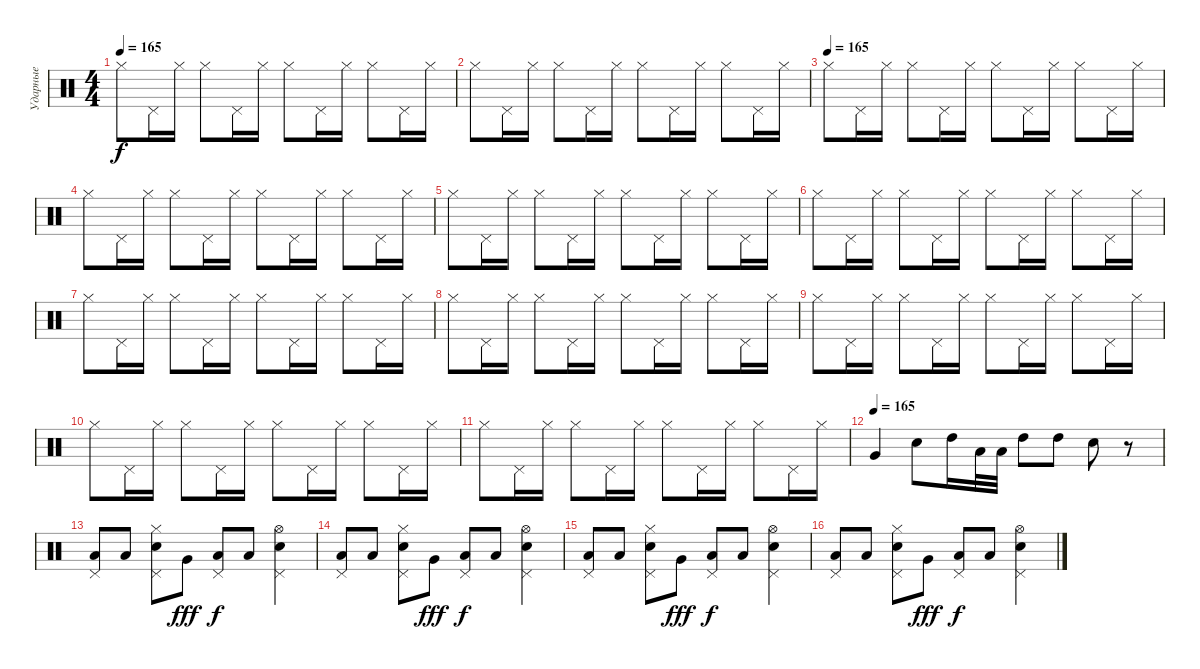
\track ("Ударные" "Ударные") {instrument percussion}
\staff {score}
\articulation defaults
\ts (4 4)
\tempo 165
\clef neutral
\ks c "Hi-Hat (closed)".8{dy f} "Pedal Hi-Hat (hit)".16 "Hi-Hat (closed)".16 "Hi-Hat (closed)".8 "Pedal Hi-Hat (hit)".16 "Hi-Hat (closed)".16 "Hi-Hat (closed)".8 "Pedal Hi-Hat (hit)".16 "Hi-Hat (closed)".16 "Hi-Hat (closed)".8 "Pedal Hi-Hat (hit)".16 "Hi-Hat (closed)".16
|
"Hi-Hat (closed)".8 "Pedal Hi-Hat (hit)".16 "Hi-Hat (closed)".16 "Hi-Hat (closed)".8 "Pedal Hi-Hat (hit)".16 "Hi-Hat (closed)".16 "Hi-Hat (closed)".8 "Pedal Hi-Hat (hit)".16 "Hi-Hat (closed)".16 "Hi-Hat (closed)".8 "Pedal Hi-Hat (hit)".16 "Hi-Hat (closed)".16 |
\tempo (165)
"Hi-Hat (closed)".8 "Pedal Hi-Hat (hit)".16 "Hi-Hat (closed)".16 "Hi-Hat (closed)".8 "Pedal Hi-Hat (hit)".16 "Hi-Hat (closed)".16 "Hi-Hat (closed)".8 "Pedal Hi-Hat (hit)".16 "Hi-Hat (closed)".16 "Hi-Hat (closed)".8 "Pedal Hi-Hat (hit)".16 "Hi-Hat (closed)".16 |
"Hi-Hat (closed)".8 "Pedal Hi-Hat (hit)".16 "Hi-Hat (closed)".16 "Hi-Hat (closed)".8 "Pedal Hi-Hat (hit)".16 "Hi-Hat (closed)".16 "Hi-Hat (closed)".8 "Pedal Hi-Hat (hit)".16 "Hi-Hat (closed)".16 "Hi-Hat (closed)".8 "Pedal Hi-Hat (hit)".16 "Hi-Hat (closed)".16 |
"Hi-Hat (closed)".8 "Pedal Hi-Hat (hit)".16 "Hi-Hat (closed)".16 "Hi-Hat (closed)".8 "Pedal Hi-Hat (hit)".16 "Hi-Hat (closed)".16 "Hi-Hat (closed)".8 "Pedal Hi-Hat (hit)".16 "Hi-Hat (closed)".16 "Hi-Hat (closed)".8 "Pedal Hi-Hat (hit)".16 "Hi-Hat (closed)".16 |
"Hi-Hat (closed)".8 "Pedal Hi-Hat (hit)".16 "Hi-Hat (closed)".16 "Hi-Hat (closed)".8 "Pedal Hi-Hat (hit)".16 "Hi-Hat (closed)".16 "Hi-Hat (closed)".8 "Pedal Hi-Hat (hit)".16 "Hi-Hat (closed)".16 "Hi-Hat (closed)".8 "Pedal Hi-Hat (hit)".16 "Hi-Hat (closed)".16 |
"Hi-Hat (closed)".8 "Pedal Hi-Hat (hit)".16 "Hi-Hat (closed)".16 "Hi-Hat (closed)".8 "Pedal Hi-Hat (hit)".16 "Hi-Hat (closed)".16 "Hi-Hat (closed)".8 "Pedal Hi-Hat (hit)".16 "Hi-Hat (closed)".16 "Hi-Hat (closed)".8 "Pedal Hi-Hat (hit)".16 "Hi-Hat (closed)".16 |
"Hi-Hat (closed)".8 "Pedal Hi-Hat (hit)".16 "Hi-Hat (closed)".16 "Hi-Hat (closed)".8 "Pedal Hi-Hat (hit)".16 "Hi-Hat (closed)".16 "Hi-Hat (closed)".8 "Pedal Hi-Hat (hit)".16 "Hi-Hat (closed)".16 "Hi-Hat (closed)".8 "Pedal Hi-Hat (hit)".16 "Hi-Hat (closed)".16 |
"Hi-Hat (closed)".8 "Pedal Hi-Hat (hit)".16 "Hi-Hat (closed)".16 "Hi-Hat (closed)".8 "Pedal Hi-Hat (hit)".16 "Hi-Hat (closed)".16 "Hi-Hat (closed)".8 "Pedal Hi-Hat (hit)".16 "Hi-Hat (closed)".16 "Hi-Hat (closed)".8 "Pedal Hi-Hat (hit)".16 "Hi-Hat (closed)".16 |
"Hi-Hat (closed)".8 "Pedal Hi-Hat (hit)".16 "Hi-Hat (closed)".16 "Hi-Hat (closed)".8 "Pedal Hi-Hat (hit)".16 "Hi-Hat (closed)".16 "Hi-Hat (closed)".8 "Pedal Hi-Hat (hit)".16 "Hi-Hat (closed)".16 "Hi-Hat (closed)".8 "Pedal Hi-Hat (hit)".16 "Hi-Hat (closed)".16 |
"Hi-Hat (closed)".8 "Pedal Hi-Hat (hit)".16 "Hi-Hat (closed)".16 "Hi-Hat (closed)".8 "Pedal Hi-Hat (hit)".16 "Hi-Hat (closed)".16 "Hi-Hat (closed)".8 "Pedal Hi-Hat (hit)".16 "Hi-Hat (closed)".16 "Hi-Hat (closed)".8 "Pedal Hi-Hat (hit)".16 "Hi-Hat (closed)".16 |
\tempo (165)
"Very Low Tom (hit)".4 "Electric Snare (hit)".8 "High Tom (hit)".16 "Low Tom (hit)".32 "Low Tom (hit)".32 "High Tom (hit)".8 "High Tom (hit)".8 "Snare (hit) 2".8 r.8 |
("Pedal Hi-Hat (hit)" "Low Floor Tom (hit)").8 "Low Floor Tom (hit)".8 ("Pedal Hi-Hat (hit)" "Electric Snare (hit)" "Hi-Hat (closed)").8 "Very Low Tom (hit)".8{dy fff} ("Pedal Hi-Hat (hit)" "Low Floor Tom (hit)").8{dy f} "Low Floor Tom (hit)".8 ("Electric Snare (hit)" "Pedal Hi-Hat (hit)" "Hi-Hat (open)").4 |
("Pedal Hi-Hat (hit)" "Low Floor Tom (hit)").8 "Low Floor Tom (hit)".8 ("Pedal Hi-Hat (hit)" "Electric Snare (hit)" "Hi-Hat (closed)").8 "Very Low Tom (hit)".8{dy fff} ("Pedal Hi-Hat (hit)" "Low Floor Tom (hit)").8{dy f} "Low Floor Tom (hit)".8 ("Electric Snare (hit)" "Pedal Hi-Hat (hit)" "Hi-Hat (open)").4 |
("Pedal Hi-Hat (hit)" "Low Floor Tom (hit)").8 "Low Floor Tom (hit)".8 ("Pedal Hi-Hat (hit)" "Electric Snare (hit)" "Hi-Hat (closed)").8 "Very Low Tom (hit)".8{dy fff} ("Pedal Hi-Hat (hit)" "Low Floor Tom (hit)").8{dy f} "Low Floor Tom (hit)".8 ("Pedal Hi-Hat (hit)" "Electric Snare (hit)" "Hi-Hat (open)").4 |
("Pedal Hi-Hat (hit)" "Low Floor Tom (hit)").8 "Low Floor Tom (hit)".8 ("Pedal Hi-Hat (hit)" "Electric Snare (hit)" "Hi-Hat (closed)").8 "Very Low Tom (hit)".8{dy fff} ("Pedal Hi-Hat (hit)" "Low Floor Tom (hit)").8{dy f} "Low Floor Tom (hit)".8 ("Pedal Hi-Hat (hit)" "Electric Snare (hit)" "Hi-Hat (open)").4
